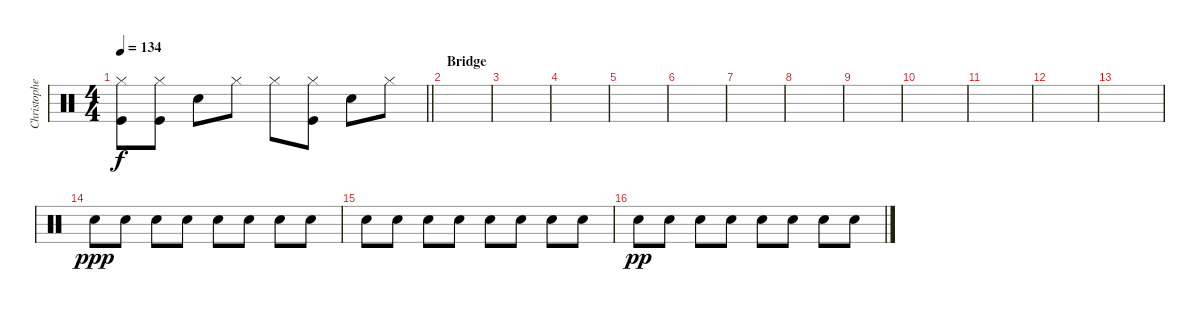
\track ("Christopher - Drums" "Christophe") {instrument percussion}
\staff {score}
\articulation defaults
\ts (4 4)
\tempo 134
\clef neutral
\barLineRight lightlight
\ks c
("Hi-Hat (closed)" "Kick (hit)").8{dy f} ("Hi-Hat (closed)" "Kick (hit)").8 "Snare (hit) 2".8 "Hi-Hat (closed)".8 "Hi-Hat (closed)".8 ("Hi-Hat (closed)" "Kick (hit)").8 "Snare (hit) 2".8 "Hi-Hat (closed)".8 |
\section ("" "Bridge")
|
|
|
|
|
|
|
|
|
|
|
|
"Snare (hit) 2".8{dy ppp} "Snare (hit) 2".8 "Snare (hit) 2".8 "Snare (hit) 2".8 "Snare (hit) 2".8 "Snare (hit) 2".8 "Snare (hit) 2".8 "Snare (hit) 2".8 |
"Snare (hit) 2".8 "Snare (hit) 2".8 "Snare (hit) 2".8 "Snare (hit) 2".8 "Snare (hit) 2".8 "Snare (hit) 2".8 "Snare (hit) 2".8 "Snare (hit) 2".8 |
"Snare (hit) 2".8{dy pp} "Snare (hit) 2".8 "Snare (hit) 2".8 "Snare (hit) 2".8 "Snare (hit) 2".8 "Snare (hit) 2".8 "Snare (hit) 2".8 "Snare (hit) 2".8
